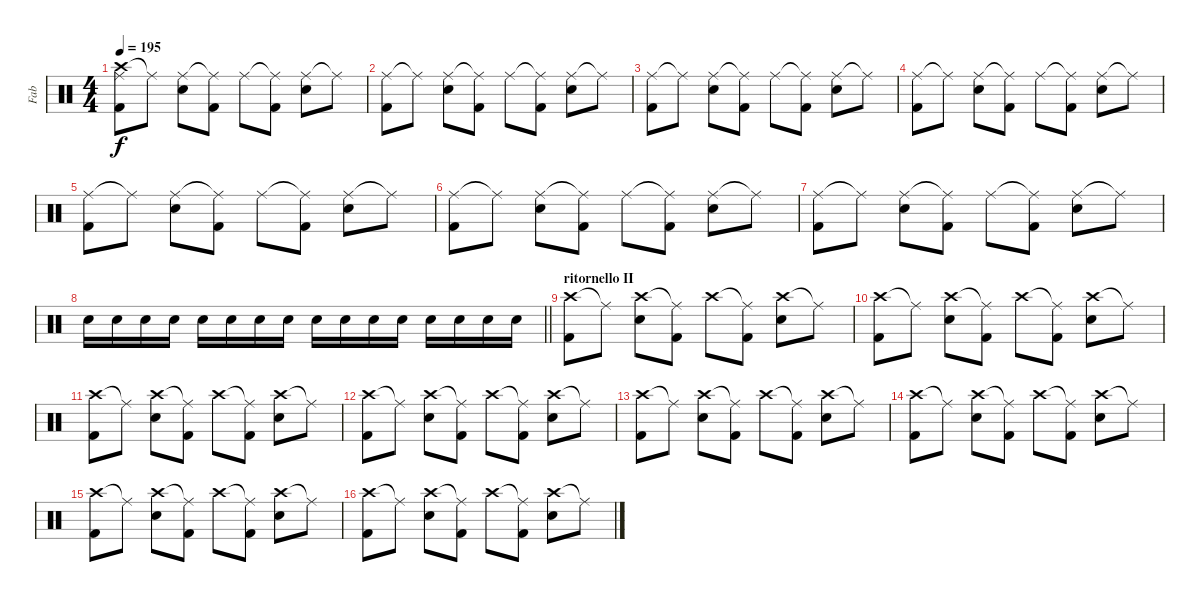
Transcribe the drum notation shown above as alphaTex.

\track ("Fab" "Fab") {instrument percussion}
\staff {score}
\articulation defaults
\ts (4 4)
\tempo 195
\clef neutral
\ks c
("Crash high (hit)" "Ride (middle)" "Kick (hit) 2").8{dy f} "Ride (middle)"{t}.8 ("Ride (middle)" "Electric Snare (hit)").8 ("Ride (middle)"{t} "Kick (hit) 2").8 "Ride (middle)".8 ("Ride (middle)"{t} "Kick (hit) 2").8 ("Ride (middle)" "Electric Snare (hit)").8 "Ride (middle)"{t}.8 |
("Ride (middle)" "Kick (hit) 2").8 "Ride (middle)"{t}.8 ("Ride (middle)" "Electric Snare (hit)").8 ("Ride (middle)"{t} "Kick (hit) 2").8 "Ride (middle)".8 ("Ride (middle)"{t} "Kick (hit) 2").8 ("Ride (middle)" "Electric Snare (hit)").8 "Ride (middle)"{t}.8 |
("Ride (middle)" "Kick (hit) 2").8 "Ride (middle)"{t}.8 ("Ride (middle)" "Electric Snare (hit)").8 ("Ride (middle)"{t} "Kick (hit) 2").8 "Ride (middle)".8 ("Ride (middle)"{t} "Kick (hit) 2").8 ("Ride (middle)" "Electric Snare (hit)").8 "Ride (middle)"{t}.8 |
("Ride (middle)" "Kick (hit) 2").8 "Ride (middle)"{t}.8 ("Ride (middle)" "Electric Snare (hit)").8 ("Ride (middle)"{t} "Kick (hit) 2").8 "Ride (middle)".8 ("Ride (middle)"{t} "Kick (hit) 2").8 ("Ride (middle)" "Electric Snare (hit)").8 "Ride (middle)"{t}.8 |
("Ride (middle)" "Kick (hit) 2").8 "Ride (middle)"{t}.8 ("Ride (middle)" "Electric Snare (hit)").8 ("Ride (middle)"{t} "Kick (hit) 2").8 "Ride (middle)".8 ("Ride (middle)"{t} "Kick (hit) 2").8 ("Ride (middle)" "Electric Snare (hit)").8 "Ride (middle)"{t}.8 |
("Ride (middle)" "Kick (hit) 2").8 "Ride (middle)"{t}.8 ("Ride (middle)" "Electric Snare (hit)").8 ("Ride (middle)"{t} "Kick (hit) 2").8 "Ride (middle)".8 ("Ride (middle)"{t} "Kick (hit) 2").8 ("Ride (middle)" "Electric Snare (hit)").8 "Ride (middle)"{t}.8 |
("Ride (middle)" "Kick (hit) 2").8 "Ride (middle)"{t}.8 ("Ride (middle)" "Electric Snare (hit)").8 ("Ride (middle)"{t} "Kick (hit) 2").8 "Ride (middle)".8 ("Ride (middle)"{t} "Kick (hit) 2").8 ("Ride (middle)" "Electric Snare (hit)").8 "Ride (middle)"{t}.8 |
\barLineRight lightlight "Electric Snare (hit)".16 "Electric Snare (hit)".16 "Electric Snare (hit)".16 "Electric Snare (hit)".16 "Electric Snare (hit)".16 "Electric Snare (hit)".16 "Electric Snare (hit)".16 "Electric Snare (hit)".16 "Electric Snare (hit)".16 "Electric Snare (hit)".16 "Electric Snare (hit)".16 "Electric Snare (hit)".16 "Electric Snare (hit)".16 "Electric Snare (hit)".16 "Electric Snare (hit)".16 "Electric Snare (hit)".16
|
\section ("" "ritornello II")
("Crash high (hit)" "Kick (hit) 2").8 "Ride (middle)"{t}.8 ("Crash high (hit)" "Electric Snare (hit)").8 ("Ride (middle)"{t} "Kick (hit) 2").8 "Crash high (hit)".8 ("Ride (middle)"{t} "Kick (hit) 2").8 ("Crash high (hit)" "Electric Snare (hit)").8 "Ride (middle)"{t}.8 |
("Crash high (hit)" "Kick (hit) 2").8 "Ride (middle)"{t}.8 ("Crash high (hit)" "Electric Snare (hit)").8 ("Ride (middle)"{t} "Kick (hit) 2").8 "Crash high (hit)".8 ("Ride (middle)"{t} "Kick (hit) 2").8 ("Crash high (hit)" "Electric Snare (hit)").8 "Ride (middle)"{t}.8 |
("Crash high (hit)" "Kick (hit) 2").8 "Ride (middle)"{t}.8 ("Crash high (hit)" "Electric Snare (hit)").8 ("Ride (middle)"{t} "Kick (hit) 2").8 "Crash high (hit)".8 ("Ride (middle)"{t} "Kick (hit) 2").8 ("Crash high (hit)" "Electric Snare (hit)").8 "Ride (middle)"{t}.8 |
("Crash high (hit)" "Kick (hit) 2").8 "Ride (middle)"{t}.8 ("Crash high (hit)" "Electric Snare (hit)").8 ("Ride (middle)"{t} "Kick (hit) 2").8 "Crash high (hit)".8 ("Ride (middle)"{t} "Kick (hit) 2").8 ("Crash high (hit)" "Electric Snare (hit)").8 "Ride (middle)"{t}.8 |
("Crash high (hit)" "Kick (hit) 2").8 "Ride (middle)"{t}.8 ("Crash high (hit)" "Electric Snare (hit)").8 ("Ride (middle)"{t} "Kick (hit) 2").8 "Crash high (hit)".8 ("Ride (middle)"{t} "Kick (hit) 2").8 ("Crash high (hit)" "Electric Snare (hit)").8 "Ride (middle)"{t}.8 |
("Crash high (hit)" "Kick (hit) 2").8 "Ride (middle)"{t}.8 ("Crash high (hit)" "Electric Snare (hit)").8 ("Ride (middle)"{t} "Kick (hit) 2").8 "Crash high (hit)".8 ("Ride (middle)"{t} "Kick (hit) 2").8 ("Crash high (hit)" "Electric Snare (hit)").8 "Ride (middle)"{t}.8 |
("Crash high (hit)" "Kick (hit) 2").8 "Ride (middle)"{t}.8 ("Crash high (hit)" "Electric Snare (hit)").8 ("Ride (middle)"{t} "Kick (hit) 2").8 "Crash high (hit)".8 ("Ride (middle)"{t} "Kick (hit) 2").8 ("Crash high (hit)" "Electric Snare (hit)").8 "Ride (middle)"{t}.8 |
("Crash high (hit)" "Kick (hit) 2").8 "Ride (middle)"{t}.8 ("Crash high (hit)" "Electric Snare (hit)").8 ("Ride (middle)"{t} "Kick (hit) 2").8 "Crash high (hit)".8 ("Ride (middle)"{t} "Kick (hit) 2").8 ("Crash high (hit)" "Electric Snare (hit)").8 "Ride (middle)"{t}.8
